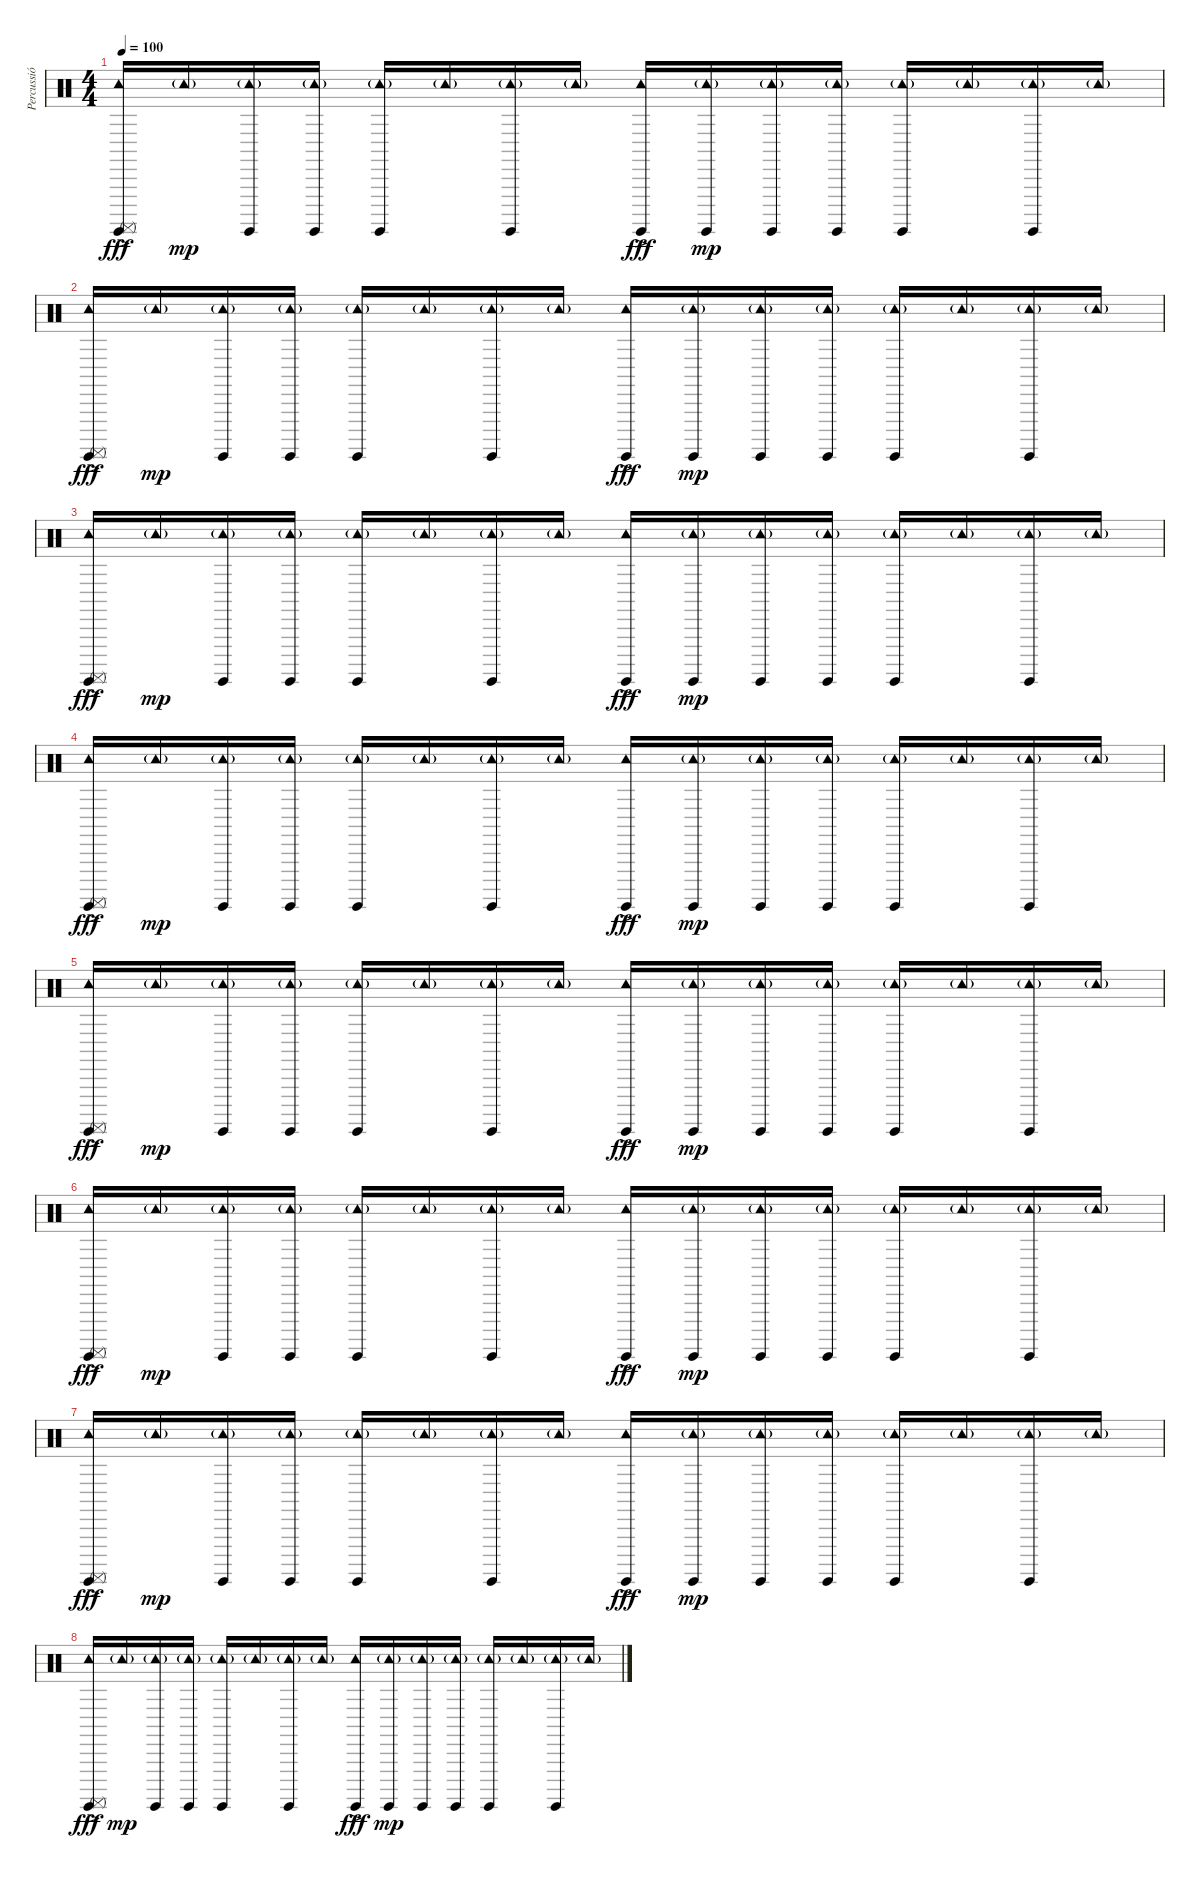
\track ("Percussió" "Percussió") {instrument percussion}
\staff {score}
\articulation defaults
\ts (4 4)
\tempo 100
\clef neutral
\ks c
("Tambourine (hit)"{ac} "Surdo (hit)" "Surdo (mute)"{ac}).16{dy fff} "Tambourine (hit)"{g}.16{dy mp} ("Tambourine (hit)"{g} "Surdo (hit)").16 ("Tambourine (hit)"{g} "Surdo (hit)").16 ("Tambourine (hit)"{g} "Surdo (hit)").16 "Tambourine (hit)"{g}.16 ("Tambourine (hit)"{g} "Surdo (hit)").16 "Tambourine (hit)"{g}.16 ("Tambourine (hit)"{ac} "Surdo (hit)"{ac}).16{dy fff} ("Tambourine (hit)"{g} "Surdo (hit)").16{dy mp} ("Tambourine (hit)"{g} "Surdo (hit)").16 ("Tambourine (hit)"{g} "Surdo (hit)").16 ("Tambourine (hit)"{g} "Surdo (hit)").16 "Tambourine (hit)"{g}.16 ("Tambourine (hit)"{g} "Surdo (hit)").16 "Tambourine (hit)"{g}.16 |
("Tambourine (hit)"{ac} "Surdo (hit)" "Surdo (mute)"{ac}).16{dy fff} "Tambourine (hit)"{g}.16{dy mp} ("Tambourine (hit)"{g} "Surdo (hit)").16 ("Tambourine (hit)"{g} "Surdo (hit)").16 ("Tambourine (hit)"{g} "Surdo (hit)").16 "Tambourine (hit)"{g}.16 ("Tambourine (hit)"{g} "Surdo (hit)").16 "Tambourine (hit)"{g}.16 ("Tambourine (hit)"{ac} "Surdo (hit)"{ac}).16{dy fff} ("Tambourine (hit)"{g} "Surdo (hit)").16{dy mp} ("Tambourine (hit)"{g} "Surdo (hit)").16 ("Tambourine (hit)"{g} "Surdo (hit)").16 ("Tambourine (hit)"{g} "Surdo (hit)").16 "Tambourine (hit)"{g}.16 ("Tambourine (hit)"{g} "Surdo (hit)").16 "Tambourine (hit)"{g}.16 |
("Tambourine (hit)"{ac} "Surdo (hit)" "Surdo (mute)"{ac}).16{dy fff} "Tambourine (hit)"{g}.16{dy mp} ("Tambourine (hit)"{g} "Surdo (hit)").16 ("Tambourine (hit)"{g} "Surdo (hit)").16 ("Tambourine (hit)"{g} "Surdo (hit)").16 "Tambourine (hit)"{g}.16 ("Tambourine (hit)"{g} "Surdo (hit)").16 "Tambourine (hit)"{g}.16 ("Tambourine (hit)"{ac} "Surdo (hit)"{ac}).16{dy fff} ("Tambourine (hit)"{g} "Surdo (hit)").16{dy mp} ("Tambourine (hit)"{g} "Surdo (hit)").16 ("Tambourine (hit)"{g} "Surdo (hit)").16 ("Tambourine (hit)"{g} "Surdo (hit)").16 "Tambourine (hit)"{g}.16 ("Tambourine (hit)"{g} "Surdo (hit)").16 "Tambourine (hit)"{g}.16 |
("Tambourine (hit)"{ac} "Surdo (hit)" "Surdo (mute)"{ac}).16{dy fff} "Tambourine (hit)"{g}.16{dy mp} ("Tambourine (hit)"{g} "Surdo (hit)").16 ("Tambourine (hit)"{g} "Surdo (hit)").16 ("Tambourine (hit)"{g} "Surdo (hit)").16 "Tambourine (hit)"{g}.16 ("Tambourine (hit)"{g} "Surdo (hit)").16 "Tambourine (hit)"{g}.16 ("Tambourine (hit)"{ac} "Surdo (hit)"{ac}).16{dy fff} ("Tambourine (hit)"{g} "Surdo (hit)").16{dy mp} ("Tambourine (hit)"{g} "Surdo (hit)").16 ("Tambourine (hit)"{g} "Surdo (hit)").16 ("Tambourine (hit)"{g} "Surdo (hit)").16 "Tambourine (hit)"{g}.16 ("Tambourine (hit)"{g} "Surdo (hit)").16 "Tambourine (hit)"{g}.16 |
("Tambourine (hit)"{ac} "Surdo (hit)" "Surdo (mute)"{ac}).16{dy fff} "Tambourine (hit)"{g}.16{dy mp} ("Tambourine (hit)"{g} "Surdo (hit)").16 ("Tambourine (hit)"{g} "Surdo (hit)").16 ("Tambourine (hit)"{g} "Surdo (hit)").16 "Tambourine (hit)"{g}.16 ("Tambourine (hit)"{g} "Surdo (hit)").16 "Tambourine (hit)"{g}.16 ("Tambourine (hit)"{ac} "Surdo (hit)"{ac}).16{dy fff} ("Tambourine (hit)"{g} "Surdo (hit)").16{dy mp} ("Tambourine (hit)"{g} "Surdo (hit)").16 ("Tambourine (hit)"{g} "Surdo (hit)").16 ("Tambourine (hit)"{g} "Surdo (hit)").16 "Tambourine (hit)"{g}.16 ("Tambourine (hit)"{g} "Surdo (hit)").16 "Tambourine (hit)"{g}.16 |
("Tambourine (hit)"{ac} "Surdo (hit)" "Surdo (mute)"{ac}).16{dy fff} "Tambourine (hit)"{g}.16{dy mp} ("Tambourine (hit)"{g} "Surdo (hit)").16 ("Tambourine (hit)"{g} "Surdo (hit)").16 ("Tambourine (hit)"{g} "Surdo (hit)").16 "Tambourine (hit)"{g}.16 ("Tambourine (hit)"{g} "Surdo (hit)").16 "Tambourine (hit)"{g}.16 ("Tambourine (hit)"{ac} "Surdo (hit)"{ac}).16{dy fff} ("Tambourine (hit)"{g} "Surdo (hit)").16{dy mp} ("Tambourine (hit)"{g} "Surdo (hit)").16 ("Tambourine (hit)"{g} "Surdo (hit)").16 ("Tambourine (hit)"{g} "Surdo (hit)").16 "Tambourine (hit)"{g}.16 ("Tambourine (hit)"{g} "Surdo (hit)").16 "Tambourine (hit)"{g}.16 |
("Tambourine (hit)"{ac} "Surdo (hit)" "Surdo (mute)"{ac}).16{dy fff} "Tambourine (hit)"{g}.16{dy mp} ("Tambourine (hit)"{g} "Surdo (hit)").16 ("Tambourine (hit)"{g} "Surdo (hit)").16 ("Tambourine (hit)"{g} "Surdo (hit)").16 "Tambourine (hit)"{g}.16 ("Tambourine (hit)"{g} "Surdo (hit)").16 "Tambourine (hit)"{g}.16 ("Tambourine (hit)"{ac} "Surdo (hit)"{ac}).16{dy fff} ("Tambourine (hit)"{g} "Surdo (hit)").16{dy mp} ("Tambourine (hit)"{g} "Surdo (hit)").16 ("Tambourine (hit)"{g} "Surdo (hit)").16 ("Tambourine (hit)"{g} "Surdo (hit)").16 "Tambourine (hit)"{g}.16 ("Tambourine (hit)"{g} "Surdo (hit)").16 "Tambourine (hit)"{g}.16 |
("Tambourine (hit)"{ac} "Surdo (hit)" "Surdo (mute)"{ac}).16{dy fff} "Tambourine (hit)"{g}.16{dy mp} ("Tambourine (hit)"{g} "Surdo (hit)").16 ("Tambourine (hit)"{g} "Surdo (hit)").16 ("Tambourine (hit)"{g} "Surdo (hit)").16 "Tambourine (hit)"{g}.16 ("Tambourine (hit)"{g} "Surdo (hit)").16 "Tambourine (hit)"{g}.16 ("Tambourine (hit)"{ac} "Surdo (hit)"{ac}).16{dy fff} ("Tambourine (hit)"{g} "Surdo (hit)").16{dy mp} ("Tambourine (hit)"{g} "Surdo (hit)").16 ("Tambourine (hit)"{g} "Surdo (hit)").16 ("Tambourine (hit)"{g} "Surdo (hit)").16 "Tambourine (hit)"{g}.16 ("Tambourine (hit)"{g} "Surdo (hit)").16 "Tambourine (hit)"{g}.16
